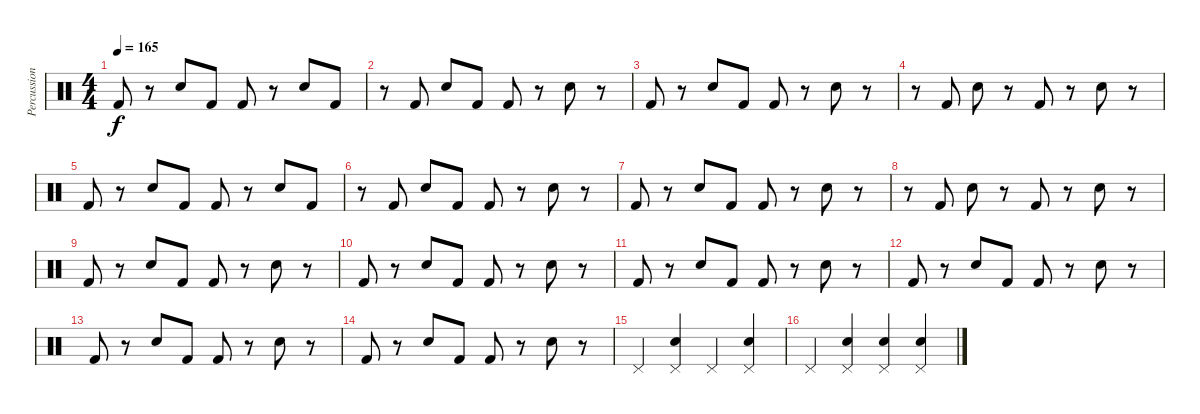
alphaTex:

\track ("Percussion" "Percussion") {instrument percussion}
\staff {score}
\articulation defaults
\ts (4 4)
\tempo 165
\clef neutral
\ks c "Kick (hit) 2".8{dy f}
r.8 "Snare (hit) 2".8 "Kick (hit) 2".8 "Kick (hit) 2".8 r.8 "Snare (hit) 2".8 "Kick (hit) 2".8 |
r.8 "Kick (hit) 2".8 "Snare (hit) 2".8 "Kick (hit) 2".8 "Kick (hit) 2".8 r.8 "Snare (hit) 2".8 r.8 |
"Kick (hit) 2".8 r.8 "Snare (hit) 2".8 "Kick (hit) 2".8 "Kick (hit) 2".8 r.8 "Snare (hit) 2".8 r.8 |
r.8 "Kick (hit) 2".8 "Snare (hit) 2".8 r.8 "Kick (hit) 2".8 r.8 "Snare (hit) 2".8 r.8 |
"Kick (hit) 2".8 r.8 "Snare (hit) 2".8 "Kick (hit) 2".8 "Kick (hit) 2".8 r.8 "Snare (hit) 2".8 "Kick (hit) 2".8 |
r.8 "Kick (hit) 2".8 "Snare (hit) 2".8 "Kick (hit) 2".8 "Kick (hit) 2".8 r.8 "Snare (hit) 2".8 r.8 |
"Kick (hit) 2".8 r.8 "Snare (hit) 2".8 "Kick (hit) 2".8 "Kick (hit) 2".8 r.8 "Snare (hit) 2".8 r.8 |
r.8 "Kick (hit) 2".8 "Snare (hit) 2".8 r.8 "Kick (hit) 2".8 r.8 "Snare (hit) 2".8 r.8 |
"Kick (hit) 2".8 r.8 "Snare (hit) 2".8 "Kick (hit) 2".8 "Kick (hit) 2".8 r.8 "Snare (hit) 2".8 r.8 |
"Kick (hit) 2".8 r.8 "Snare (hit) 2".8 "Kick (hit) 2".8 "Kick (hit) 2".8 r.8 "Snare (hit) 2".8 r.8 |
"Kick (hit) 2".8 r.8 "Snare (hit) 2".8 "Kick (hit) 2".8 "Kick (hit) 2".8 r.8 "Snare (hit) 2".8 r.8 |
"Kick (hit) 2".8 r.8 "Snare (hit) 2".8 "Kick (hit) 2".8 "Kick (hit) 2".8 r.8 "Snare (hit) 2".8 r.8 |
"Kick (hit) 2".8 r.8 "Snare (hit) 2".8 "Kick (hit) 2".8 "Kick (hit) 2".8 r.8 "Snare (hit) 2".8 r.8 |
"Kick (hit) 2".8 r.8 "Snare (hit) 2".8 "Kick (hit) 2".8 "Kick (hit) 2".8 r.8 "Snare (hit) 2".8 r.8 |
"Pedal Hi-Hat (hit)".4 ("Pedal Hi-Hat (hit)" "Snare (hit) 2").4 "Pedal Hi-Hat (hit)".4 ("Pedal Hi-Hat (hit)" "Snare (hit) 2").4 |
"Pedal Hi-Hat (hit)".4 ("Pedal Hi-Hat (hit)" "Snare (hit) 2").4 ("Pedal Hi-Hat (hit)" "Snare (hit) 2").4 ("Pedal Hi-Hat (hit)" "Snare (hit) 2").4
